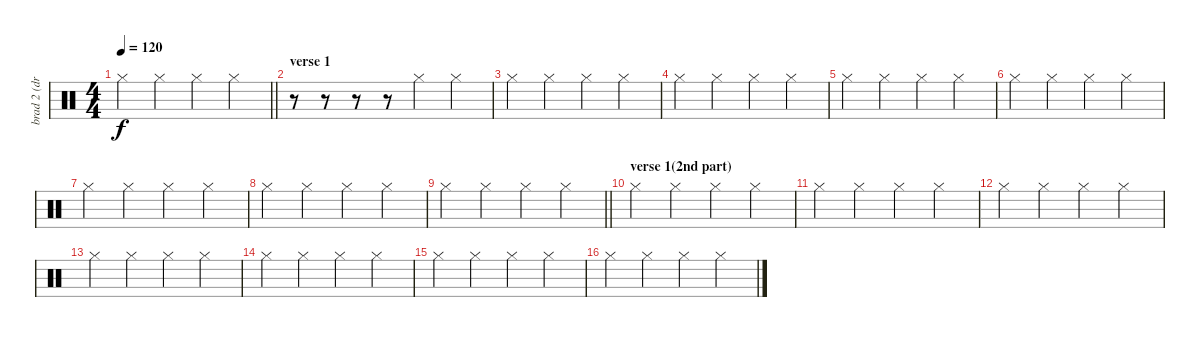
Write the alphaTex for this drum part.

\track ("brad 2 (drums hit hat)" "brad 2 (dr") {instrument percussion}
\staff {score}
\articulation defaults
\ts (4 4)
\tempo 120
\clef neutral
\barLineRight lightlight
\ks c "Hi-Hat (closed)".4{dy f} "Hi-Hat (closed)".4 "Hi-Hat (closed)".4 "Hi-Hat (closed)".4
|
\section ("" "verse 1")
r.8 r.8 r.8 r.8 "Hi-Hat (closed)".4 "Hi-Hat (closed)".4 |
"Hi-Hat (closed)".4 "Hi-Hat (closed)".4 "Hi-Hat (closed)".4 "Hi-Hat (closed)".4 |
"Hi-Hat (closed)".4 "Hi-Hat (closed)".4 "Hi-Hat (closed)".4 "Hi-Hat (closed)".4 |
"Hi-Hat (closed)".4 "Hi-Hat (closed)".4 "Hi-Hat (closed)".4 "Hi-Hat (closed)".4 |
"Hi-Hat (closed)".4 "Hi-Hat (closed)".4 "Hi-Hat (closed)".4 "Hi-Hat (closed)".4 |
"Hi-Hat (closed)".4 "Hi-Hat (closed)".4 "Hi-Hat (closed)".4 "Hi-Hat (closed)".4 |
"Hi-Hat (closed)".4 "Hi-Hat (closed)".4 "Hi-Hat (closed)".4 "Hi-Hat (closed)".4 |
\barLineRight lightlight "Hi-Hat (closed)".4 "Hi-Hat (closed)".4 "Hi-Hat (closed)".4 "Hi-Hat (closed)".4
|
\section ("" "verse 1(2nd part)")
"Hi-Hat (closed)".4 "Hi-Hat (closed)".4 "Hi-Hat (closed)".4 "Hi-Hat (closed)".4 |
"Hi-Hat (closed)".4 "Hi-Hat (closed)".4 "Hi-Hat (closed)".4 "Hi-Hat (closed)".4 |
"Hi-Hat (closed)".4 "Hi-Hat (closed)".4 "Hi-Hat (closed)".4 "Hi-Hat (closed)".4 |
"Hi-Hat (closed)".4 "Hi-Hat (closed)".4 "Hi-Hat (closed)".4 "Hi-Hat (closed)".4 |
"Hi-Hat (closed)".4 "Hi-Hat (closed)".4 "Hi-Hat (closed)".4 "Hi-Hat (closed)".4 |
"Hi-Hat (closed)".4 "Hi-Hat (closed)".4 "Hi-Hat (closed)".4 "Hi-Hat (closed)".4 |
"Hi-Hat (closed)".4 "Hi-Hat (closed)".4 "Hi-Hat (closed)".4 "Hi-Hat (closed)".4
